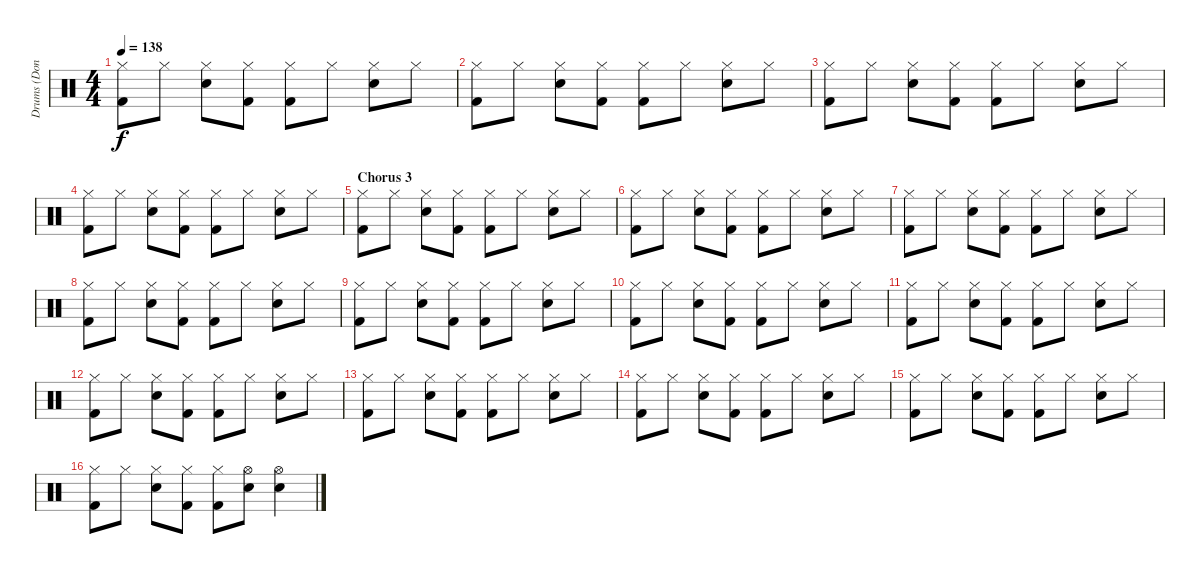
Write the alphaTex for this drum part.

\track ("Drums (Don Henley)" "Drums (Don") {instrument percussion}
\staff {score}
\articulation defaults
\ts (4 4)
\tempo 138
\clef neutral
\ks c
("Hi-Hat (closed)" "Kick (hit) 2").8{dy f} "Hi-Hat (closed)".8 ("Hi-Hat (closed)" "Snare (hit) 2").8 ("Hi-Hat (closed)" "Kick (hit) 2").8 ("Hi-Hat (closed)" "Kick (hit) 2").8 "Hi-Hat (closed)".8 ("Hi-Hat (closed)" "Snare (hit) 2").8 "Hi-Hat (closed)".8 |
("Hi-Hat (closed)" "Kick (hit) 2").8 "Hi-Hat (closed)".8 ("Hi-Hat (closed)" "Snare (hit) 2").8 ("Hi-Hat (closed)" "Kick (hit) 2").8 ("Hi-Hat (closed)" "Kick (hit) 2").8 "Hi-Hat (closed)".8 ("Hi-Hat (closed)" "Snare (hit) 2").8 "Hi-Hat (closed)".8 |
("Hi-Hat (closed)" "Kick (hit) 2").8 "Hi-Hat (closed)".8 ("Hi-Hat (closed)" "Snare (hit) 2").8 ("Hi-Hat (closed)" "Kick (hit) 2").8 ("Hi-Hat (closed)" "Kick (hit) 2").8 "Hi-Hat (closed)".8 ("Hi-Hat (closed)" "Snare (hit) 2").8 "Hi-Hat (closed)".8 |
("Hi-Hat (closed)" "Kick (hit) 2").8 "Hi-Hat (closed)".8 ("Hi-Hat (closed)" "Snare (hit) 2").8 ("Hi-Hat (closed)" "Kick (hit) 2").8 ("Hi-Hat (closed)" "Kick (hit) 2").8 "Hi-Hat (closed)".8 ("Hi-Hat (closed)" "Snare (hit) 2").8 "Hi-Hat (closed)".8 |
\section ("" "Chorus 3")
("Hi-Hat (closed)" "Kick (hit) 2").8 "Hi-Hat (closed)".8 ("Hi-Hat (closed)" "Snare (hit) 2").8 ("Hi-Hat (closed)" "Kick (hit) 2").8 ("Hi-Hat (closed)" "Kick (hit) 2").8 "Hi-Hat (closed)".8 ("Hi-Hat (closed)" "Snare (hit) 2").8 "Hi-Hat (closed)".8 |
("Hi-Hat (closed)" "Kick (hit) 2").8 "Hi-Hat (closed)".8 ("Hi-Hat (closed)" "Snare (hit) 2").8 ("Hi-Hat (closed)" "Kick (hit) 2").8 ("Hi-Hat (closed)" "Kick (hit) 2").8 "Hi-Hat (closed)".8 ("Hi-Hat (closed)" "Snare (hit) 2").8 "Hi-Hat (closed)".8 |
("Hi-Hat (closed)" "Kick (hit) 2").8 "Hi-Hat (closed)".8 ("Hi-Hat (closed)" "Snare (hit) 2").8 ("Hi-Hat (closed)" "Kick (hit) 2").8 ("Hi-Hat (closed)" "Kick (hit) 2").8 "Hi-Hat (closed)".8 ("Hi-Hat (closed)" "Snare (hit) 2").8 "Hi-Hat (closed)".8 |
("Hi-Hat (closed)" "Kick (hit) 2").8 "Hi-Hat (closed)".8 ("Hi-Hat (closed)" "Snare (hit) 2").8 ("Hi-Hat (closed)" "Kick (hit) 2").8 ("Hi-Hat (closed)" "Kick (hit) 2").8 "Hi-Hat (closed)".8 ("Hi-Hat (closed)" "Snare (hit) 2").8 "Hi-Hat (closed)".8 |
("Hi-Hat (closed)" "Kick (hit) 2").8 "Hi-Hat (closed)".8 ("Hi-Hat (closed)" "Snare (hit) 2").8 ("Hi-Hat (closed)" "Kick (hit) 2").8 ("Hi-Hat (closed)" "Kick (hit) 2").8 "Hi-Hat (closed)".8 ("Hi-Hat (closed)" "Snare (hit) 2").8 "Hi-Hat (closed)".8 |
("Hi-Hat (closed)" "Kick (hit) 2").8 "Hi-Hat (closed)".8 ("Hi-Hat (closed)" "Snare (hit) 2").8 ("Hi-Hat (closed)" "Kick (hit) 2").8 ("Hi-Hat (closed)" "Kick (hit) 2").8 "Hi-Hat (closed)".8 ("Hi-Hat (closed)" "Snare (hit) 2").8 "Hi-Hat (closed)".8 |
("Hi-Hat (closed)" "Kick (hit) 2").8 "Hi-Hat (closed)".8 ("Hi-Hat (closed)" "Snare (hit) 2").8 ("Hi-Hat (closed)" "Kick (hit) 2").8 ("Hi-Hat (closed)" "Kick (hit) 2").8 "Hi-Hat (closed)".8 ("Hi-Hat (closed)" "Snare (hit) 2").8 "Hi-Hat (closed)".8 |
("Hi-Hat (closed)" "Kick (hit) 2").8 "Hi-Hat (closed)".8 ("Hi-Hat (closed)" "Snare (hit) 2").8 ("Hi-Hat (closed)" "Kick (hit) 2").8 ("Hi-Hat (closed)" "Kick (hit) 2").8 "Hi-Hat (closed)".8 ("Hi-Hat (closed)" "Snare (hit) 2").8 "Hi-Hat (closed)".8 |
("Hi-Hat (closed)" "Kick (hit) 2").8 "Hi-Hat (closed)".8 ("Hi-Hat (closed)" "Snare (hit) 2").8 ("Hi-Hat (closed)" "Kick (hit) 2").8 ("Hi-Hat (closed)" "Kick (hit) 2").8 "Hi-Hat (closed)".8 ("Hi-Hat (closed)" "Snare (hit) 2").8 "Hi-Hat (closed)".8 |
("Hi-Hat (closed)" "Kick (hit) 2").8 "Hi-Hat (closed)".8 ("Hi-Hat (closed)" "Snare (hit) 2").8 ("Hi-Hat (closed)" "Kick (hit) 2").8 ("Hi-Hat (closed)" "Kick (hit) 2").8 "Hi-Hat (closed)".8 ("Hi-Hat (closed)" "Snare (hit) 2").8 "Hi-Hat (closed)".8 |
("Hi-Hat (closed)" "Kick (hit) 2").8 "Hi-Hat (closed)".8 ("Hi-Hat (closed)" "Snare (hit) 2").8 ("Hi-Hat (closed)" "Kick (hit) 2").8 ("Hi-Hat (closed)" "Kick (hit) 2").8 "Hi-Hat (closed)".8 ("Hi-Hat (closed)" "Snare (hit) 2").8 "Hi-Hat (closed)".8 |
("Hi-Hat (closed)" "Kick (hit) 2").8 "Hi-Hat (closed)".8 ("Hi-Hat (closed)" "Snare (hit) 2").8 ("Hi-Hat (closed)" "Kick (hit) 2").8 ("Hi-Hat (closed)" "Kick (hit) 2").8 ("Hi-Hat (open)" "Snare (hit) 2").8 ("Hi-Hat (open)" "Snare (hit) 2").4
